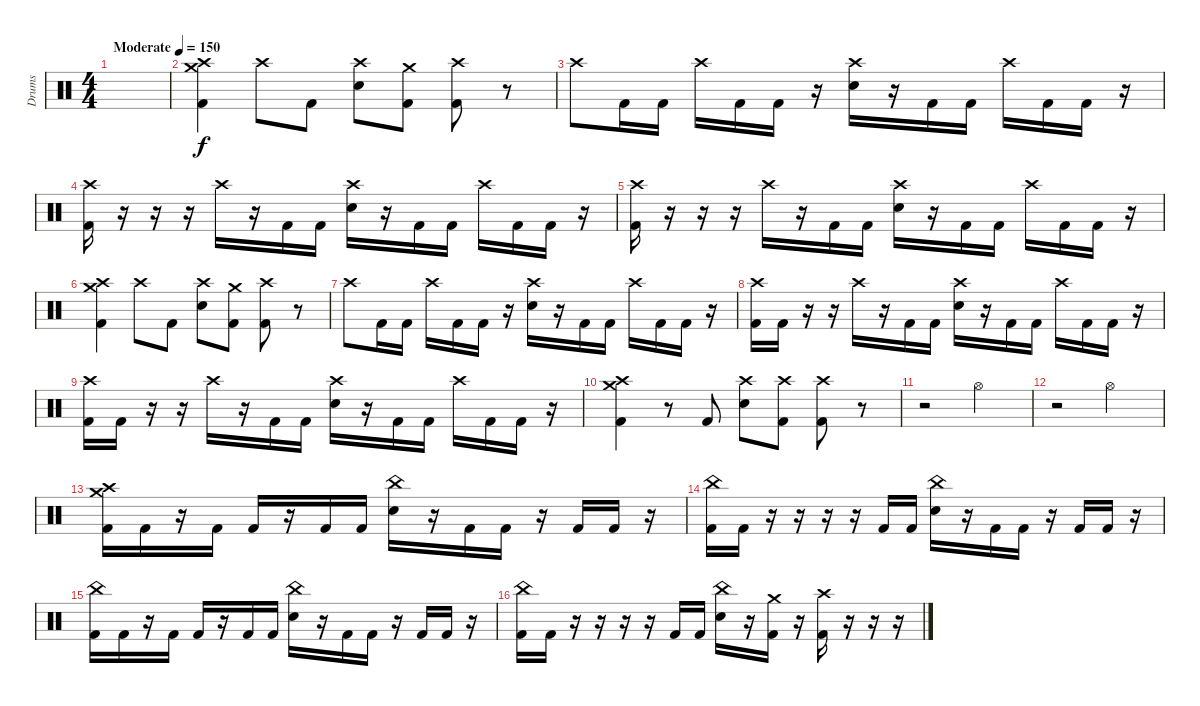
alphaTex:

\track ("Drums" "Drums") {instrument percussion}
\staff {score}
\articulation defaults
\ts (4 4)
\tempo (150 "Moderate")
\clef neutral
\ks c
|
("Crash high (hit)" "Crash medium (hit)" "Kick (hit) 2").4 "Crash high (hit)".8 "Kick (hit) 2".8 ("Crash high (hit)" "Electric Snare (hit)").8 ("Crash medium (hit)" "Kick (hit) 2").8 ("Crash high (hit)" "Kick (hit) 2").8 r.8 |
"Crash high (hit)".8 "Kick (hit) 2".16 "Kick (hit) 2".16 "Crash high (hit)".16 "Kick (hit) 2".16 "Kick (hit) 2".16 r.16 ("Crash high (hit)" "Electric Snare (hit)").16 r.16 "Kick (hit) 2".16 "Kick (hit) 2".16 "Crash high (hit)".16 "Kick (hit) 2".16 "Kick (hit) 2".16 r.16 |
("Crash high (hit)" "Kick (hit) 2").16 r.16 r.16 r.16 "Crash high (hit)".16 r.16 "Kick (hit) 2".16 "Kick (hit) 2".16 ("Crash high (hit)" "Electric Snare (hit)").16 r.16 "Kick (hit) 2".16 "Kick (hit) 2".16 "Crash high (hit)".16 "Kick (hit) 2".16 "Kick (hit) 2".16 r.16 |
("Crash high (hit)" "Kick (hit) 2").16 r.16 r.16 r.16 "Crash high (hit)".16 r.16 "Kick (hit) 2".16 "Kick (hit) 2".16 ("Crash high (hit)" "Electric Snare (hit)").16 r.16 "Kick (hit) 2".16 "Kick (hit) 2".16 "Crash high (hit)".16 "Kick (hit) 2".16 "Kick (hit) 2".16 r.16 |
("Crash high (hit)" "Crash medium (hit)" "Kick (hit) 2").4 "Crash high (hit)".8 "Kick (hit) 2".8 ("Crash high (hit)" "Electric Snare (hit)").8 ("Crash medium (hit)" "Kick (hit) 2").8 ("Crash high (hit)" "Kick (hit) 2").8 r.8 |
"Crash high (hit)".8 "Kick (hit) 2".16 "Kick (hit) 2".16 "Crash high (hit)".16 "Kick (hit) 2".16 "Kick (hit) 2".16 r.16 ("Crash high (hit)" "Electric Snare (hit)").16 r.16 "Kick (hit) 2".16 "Kick (hit) 2".16 "Crash high (hit)".16 "Kick (hit) 2".16 "Kick (hit) 2".16 r.16 |
("Crash high (hit)" "Kick (hit) 2").16 "Kick (hit) 2".16 r.16 r.16 "Crash high (hit)".16 r.16 "Kick (hit) 2".16 "Kick (hit) 2".16 ("Crash high (hit)" "Electric Snare (hit)").16 r.16 "Kick (hit) 2".16 "Kick (hit) 2".16 "Crash high (hit)".16 "Kick (hit) 2".16 "Kick (hit) 2".16 r.16 |
("Crash high (hit)" "Kick (hit) 2").16 "Kick (hit) 2".16 r.16 r.16 "Crash high (hit)".16 r.16 "Kick (hit) 2".16 "Kick (hit) 2".16 ("Crash high (hit)" "Electric Snare (hit)").16 r.16 "Kick (hit) 2".16 "Kick (hit) 2".16 "Crash high (hit)".16 "Kick (hit) 2".16 "Kick (hit) 2".16 r.16 |
("Crash high (hit)" "Crash medium (hit)" "Kick (hit) 2").4 r.8 "Kick (hit) 2".8 ("Crash high (hit)" "Electric Snare (hit)").8 ("Crash high (hit)" "Kick (hit) 2").8 ("Crash high (hit)" "Kick (hit) 2").8 r.8 |
r.2 "Hi-Hat (open)".2 |
r.2 "Hi-Hat (open)".2 |
("Crash medium (hit)" "Crash high (hit)" "Kick (hit) 2").16 "Kick (hit) 2".16 r.16 "Kick (hit) 2".16 "Kick (hit) 2".16 r.16 "Kick (hit) 2".16 "Kick (hit) 2".16 ("China (hit)" "Electric Snare (hit)").16 r.16 "Kick (hit) 2".16 "Kick (hit) 2".16 r.16 "Kick (hit) 2".16 "Kick (hit) 2".16 r.16 |
("China (hit)" "Kick (hit) 2").16 "Kick (hit) 2".16 r.16 r.16 r.16 r.16 "Kick (hit) 2".16 "Kick (hit) 2".16 ("China (hit)" "Electric Snare (hit)").16 r.16 "Kick (hit) 2".16 "Kick (hit) 2".16 r.16 "Kick (hit) 2".16 "Kick (hit) 2".16 r.16 |
("China (hit)" "Kick (hit) 2").16 "Kick (hit) 2".16 r.16 "Kick (hit) 2".16 "Kick (hit) 2".16 r.16 "Kick (hit) 2".16 "Kick (hit) 2".16 ("China (hit)" "Electric Snare (hit)").16 r.16 "Kick (hit) 2".16 "Kick (hit) 2".16 r.16 "Kick (hit) 2".16 "Kick (hit) 2".16 r.16 |
("China (hit)" "Kick (hit) 2").16 "Kick (hit) 2".16 r.16 r.16 r.16 r.16 "Kick (hit) 2".16 "Kick (hit) 2".16 ("China (hit)" "Electric Snare (hit)").16 r.16 ("Crash medium (hit)" "Kick (hit) 2").16 r.16 ("Crash high (hit)" "Kick (hit) 2").16 r.16 r.16 r.16
